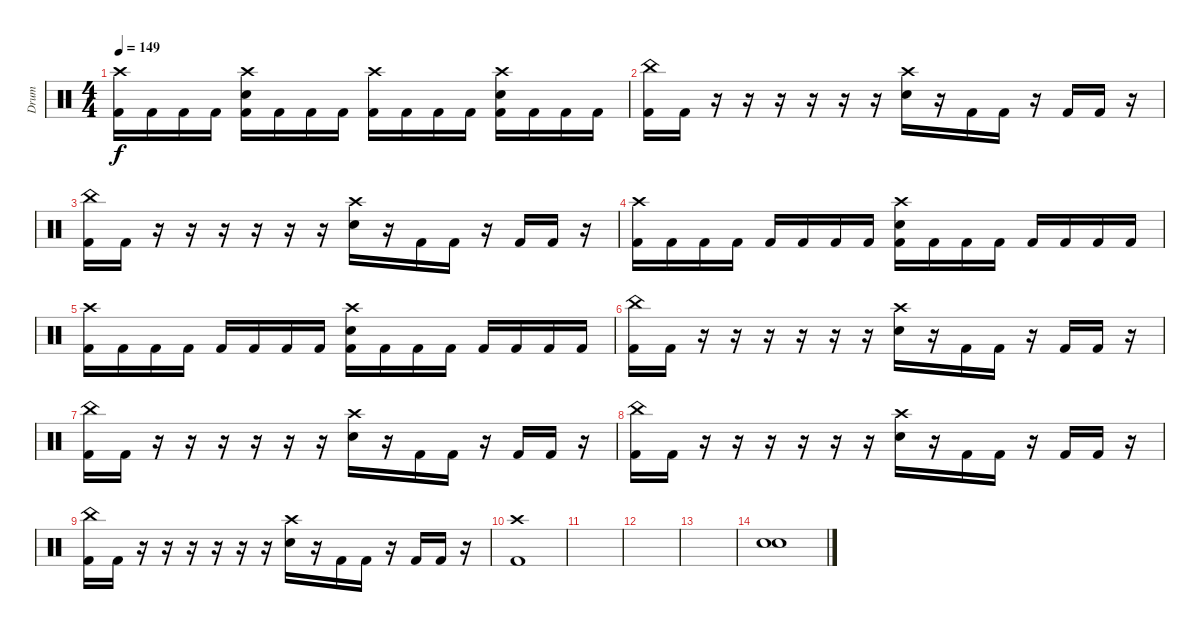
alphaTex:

\track ("Drum" "Drum") {instrument percussion}
\staff {score}
\articulation defaults
\ts (4 4)
\tempo 149
\clef neutral
\ks c
("Crash high (hit)" "Kick (hit) 2").16{dy f} "Kick (hit) 2".16 "Kick (hit) 2".16 "Kick (hit) 2".16 ("Crash high (hit)" "Electric Snare (hit)" "Kick (hit) 2").16 "Kick (hit) 2".16 "Kick (hit) 2".16 "Kick (hit) 2".16 ("Crash high (hit)" "Kick (hit) 2").16 "Kick (hit) 2".16 "Kick (hit) 2".16 "Kick (hit) 2".16 ("Crash high (hit)" "Electric Snare (hit)" "Kick (hit) 2").16 "Kick (hit) 2".16 "Kick (hit) 2".16 "Kick (hit) 2".16 |
("China (hit)" "Kick (hit) 2").16 "Kick (hit) 2".16 r.16 r.16 r.16 r.16 r.16 r.16 ("Crash high (hit)" "Electric Snare (hit)").16 r.16 "Kick (hit) 2".16 "Kick (hit) 2".16 r.16 "Kick (hit) 2".16 "Kick (hit) 2".16 r.16 |
("China (hit)" "Kick (hit) 2").16 "Kick (hit) 2".16 r.16 r.16 r.16 r.16 r.16 r.16 ("Crash high (hit)" "Electric Snare (hit)").16 r.16 "Kick (hit) 2".16 "Kick (hit) 2".16 r.16 "Kick (hit) 2".16 "Kick (hit) 2".16 r.16 |
("Crash high (hit)" "Kick (hit) 2").16 "Kick (hit) 2".16 "Kick (hit) 2".16 "Kick (hit) 2".16 "Kick (hit) 2".16 "Kick (hit) 2".16 "Kick (hit) 2".16 "Kick (hit) 2".16 ("Crash high (hit)" "Electric Snare (hit)" "Kick (hit) 2").16 "Kick (hit) 2".16 "Kick (hit) 2".16 "Kick (hit) 2".16 "Kick (hit) 2".16 "Kick (hit) 2".16 "Kick (hit) 2".16 "Kick (hit) 2".16 |
("Crash high (hit)" "Kick (hit) 2").16 "Kick (hit) 2".16 "Kick (hit) 2".16 "Kick (hit) 2".16 "Kick (hit) 2".16 "Kick (hit) 2".16 "Kick (hit) 2".16 "Kick (hit) 2".16 ("Crash high (hit)" "Electric Snare (hit)" "Kick (hit) 2").16 "Kick (hit) 2".16 "Kick (hit) 2".16 "Kick (hit) 2".16 "Kick (hit) 2".16 "Kick (hit) 2".16 "Kick (hit) 2".16 "Kick (hit) 2".16 |
("China (hit)" "Kick (hit) 2").16 "Kick (hit) 2".16 r.16 r.16 r.16 r.16 r.16 r.16 ("Crash high (hit)" "Electric Snare (hit)").16 r.16 "Kick (hit) 2".16 "Kick (hit) 2".16 r.16 "Kick (hit) 2".16 "Kick (hit) 2".16 r.16 |
("China (hit)" "Kick (hit) 2").16 "Kick (hit) 2".16 r.16 r.16 r.16 r.16 r.16 r.16 ("Crash high (hit)" "Electric Snare (hit)").16 r.16 "Kick (hit) 2".16 "Kick (hit) 2".16 r.16 "Kick (hit) 2".16 "Kick (hit) 2".16 r.16 |
("China (hit)" "Kick (hit) 2").16 "Kick (hit) 2".16 r.16 r.16 r.16 r.16 r.16 r.16 ("Crash high (hit)" "Electric Snare (hit)").16 r.16 "Kick (hit) 2".16 "Kick (hit) 2".16 r.16 "Kick (hit) 2".16 "Kick (hit) 2".16 r.16 |
("China (hit)" "Kick (hit) 2").16 "Kick (hit) 2".16 r.16 r.16 r.16 r.16 r.16 r.16 ("Crash high (hit)" "Electric Snare (hit)").16 r.16 "Kick (hit) 2".16 "Kick (hit) 2".16 r.16 "Kick (hit) 2".16 "Kick (hit) 2".16 r.16 |
("Crash high (hit)" "Kick (hit) 2").1 |
|
|
|
("Snare (hit)" "Snare (hit)").1
